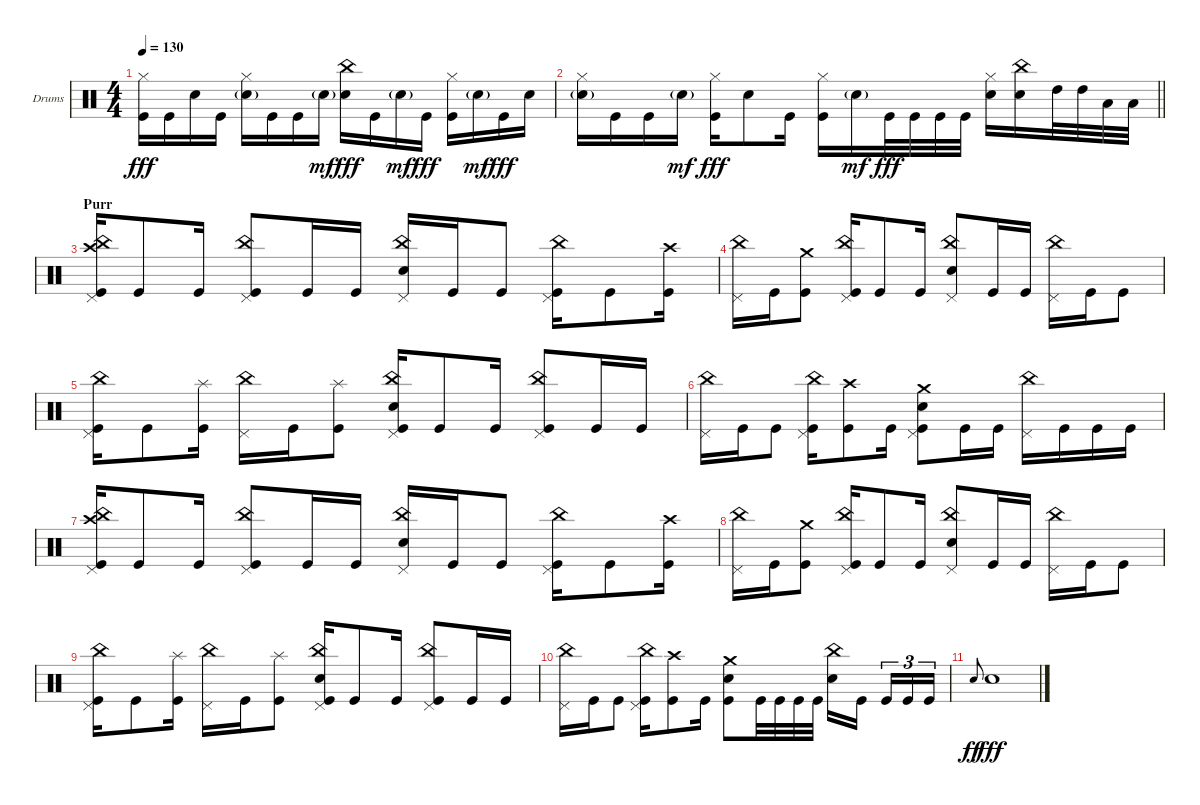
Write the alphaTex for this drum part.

\bracketExtendMode groupsimilarinstruments
\firstSystemTrackNameOrientation horizontal
\otherSystemsTrackNameOrientation horizontal
\track ("Drumkit" "Drums") {instrument percussion}
\staff {score}
\articulation defaults
\ts (4 4)
\tempo 130
\clef neutral
\ks c
("Hi-Hat (closed)" "Kick (hit)").16{dy fff} "Kick (hit)".16 "Snare (hit) 2".16 "Kick (hit)".16 ("Hi-Hat (closed)" "Snare (hit) 2"{g}).16 "Kick (hit)".16 "Kick (hit)".16 "Snare (hit) 2"{g}.16{dy mf} ("China (hit)" "Snare (hit) 2").16{dy fff} "Kick (hit)".16 "Snare (hit) 2"{g}.16{dy mf} "Kick (hit)".16{dy fff} ("Hi-Hat (closed)" "Kick (hit)").16 "Snare (hit) 2"{g}.16{dy mf} "Kick (hit)".16{dy fff} "Snare (hit) 2".16 |
\barLineRight lightlight
("Hi-Hat (closed)" "Snare (hit) 2"{g}).16 "Kick (hit)".16 "Kick (hit)".16 "Snare (hit) 2"{g}.16{dy mf} ("Hi-Hat (closed)" "Kick (hit)").16{dy fff} "Snare (hit) 2".8 "Kick (hit)".16 ("Hi-Hat (closed)" "Kick (hit)").16 "Snare (hit) 2"{g}.16{dy mf} "Kick (hit)".32{dy fff} "Kick (hit)".32 "Kick (hit)".32 "Kick (hit)".32 ("Hi-Hat (closed)" "Snare (hit) 2").16 ("China (hit)" "Snare (hit) 2").16 "High Tom (hit)".32 "High Tom (hit)".32 "Low Tom (hit)".32 "Low Tom (hit)".32 |
\section ("" "Purr")
("Crash high (hit)" "China (hit)" "Pedal Hi-Hat (hit)" "Kick (hit)").16 "Kick (hit)".8 "Kick (hit)".16 ("China (hit)" "Pedal Hi-Hat (hit)" "Kick (hit)").8 "Kick (hit)".16 "Kick (hit)".16 ("China (hit)" "Snare (hit) 2" "Pedal Hi-Hat (hit)").16 "Kick (hit)".16 "Kick (hit)".8 ("China (hit)" "Pedal Hi-Hat (hit)" "Kick (hit)").16 "Kick (hit)".8 ("Crash high (hit)" "Kick (hit)").16 |
("China (hit)" "Pedal Hi-Hat (hit)").16 "Kick (hit)".16 ("Crash medium (hit)" "Kick (hit)").8 ("China (hit)" "Pedal Hi-Hat (hit)" "Kick (hit)").16 "Kick (hit)".8 "Kick (hit)".16 ("China (hit)" "Snare (hit) 2" "Pedal Hi-Hat (hit)").8 "Kick (hit)".16 "Kick (hit)".16 ("China (hit)" "Pedal Hi-Hat (hit)").16 "Kick (hit)".16 "Kick (hit)".8 |
("China (hit)" "Pedal Hi-Hat (hit)" "Kick (hit)").16 "Kick (hit)".8 ("Splash (hit)" "Kick (hit)").16 ("China (hit)" "Pedal Hi-Hat (hit)").16 "Kick (hit)".16 ("Splash (hit)" "Kick (hit)").8 ("China (hit)" "Snare (hit) 2" "Pedal Hi-Hat (hit)" "Kick (hit)").16 "Kick (hit)".8 "Kick (hit)".16 ("China (hit)" "Pedal Hi-Hat (hit)" "Kick (hit)").8 "Kick (hit)".16 "Kick (hit)".16 |
("China (hit)" "Pedal Hi-Hat (hit)").16 "Kick (hit)".16 "Kick (hit)".8 ("China (hit)" "Pedal Hi-Hat (hit)" "Kick (hit)").16 ("Crash high (hit)" "Kick (hit)").8 "Kick (hit)".16 ("Crash medium (hit)" "Snare (hit) 2" "Pedal Hi-Hat (hit)" "Kick (hit)").8 "Kick (hit)".16 "Kick (hit)".16 ("China (hit)" "Pedal Hi-Hat (hit)").16 "Kick (hit)".16 "Kick (hit)".16 "Kick (hit)".16 |
("Crash high (hit)" "China (hit)" "Pedal Hi-Hat (hit)" "Kick (hit)").16 "Kick (hit)".8 "Kick (hit)".16 ("China (hit)" "Pedal Hi-Hat (hit)" "Kick (hit)").8 "Kick (hit)".16 "Kick (hit)".16 ("China (hit)" "Snare (hit) 2" "Pedal Hi-Hat (hit)").16 "Kick (hit)".16 "Kick (hit)".8 ("China (hit)" "Pedal Hi-Hat (hit)" "Kick (hit)").16 "Kick (hit)".8 ("Crash high (hit)" "Kick (hit)").16 |
("China (hit)" "Pedal Hi-Hat (hit)").16 "Kick (hit)".16 ("Crash medium (hit)" "Kick (hit)").8 ("China (hit)" "Pedal Hi-Hat (hit)" "Kick (hit)").16 "Kick (hit)".8 "Kick (hit)".16 ("China (hit)" "Snare (hit) 2" "Pedal Hi-Hat (hit)").8 "Kick (hit)".16 "Kick (hit)".16 ("China (hit)" "Pedal Hi-Hat (hit)").16 "Kick (hit)".16 "Kick (hit)".8 |
("China (hit)" "Pedal Hi-Hat (hit)" "Kick (hit)").16 "Kick (hit)".8 ("Splash (hit)" "Kick (hit)").16 ("China (hit)" "Pedal Hi-Hat (hit)").16 "Kick (hit)".16 ("Splash (hit)" "Kick (hit)").8 ("China (hit)" "Snare (hit) 2" "Pedal Hi-Hat (hit)" "Kick (hit)").16 "Kick (hit)".8 "Kick (hit)".16 ("China (hit)" "Pedal Hi-Hat (hit)" "Kick (hit)").8 "Kick (hit)".16 "Kick (hit)".16 |
("China (hit)" "Pedal Hi-Hat (hit)").16 "Kick (hit)".16 "Kick (hit)".8 ("China (hit)" "Pedal Hi-Hat (hit)" "Kick (hit)").16 ("Crash high (hit)" "Kick (hit)").8 "Kick (hit)".16 ("Crash medium (hit)" "Snare (hit) 2" "Kick (hit)").8 "Kick (hit)".32 "Kick (hit)".32 "Kick (hit)".32 "Kick (hit)".32 ("China (hit)" "Snare (hit) 2").16 "Kick (hit)".16 "Kick (hit)".16{tu (3 2)} "Kick (hit)".16{tu (3 2)} "Kick (hit)".16{tu (3 2)} |
"Snare (hit) 2".8{gr onbeat dy ff} "Snare (hit) 2".1{dy fff}
